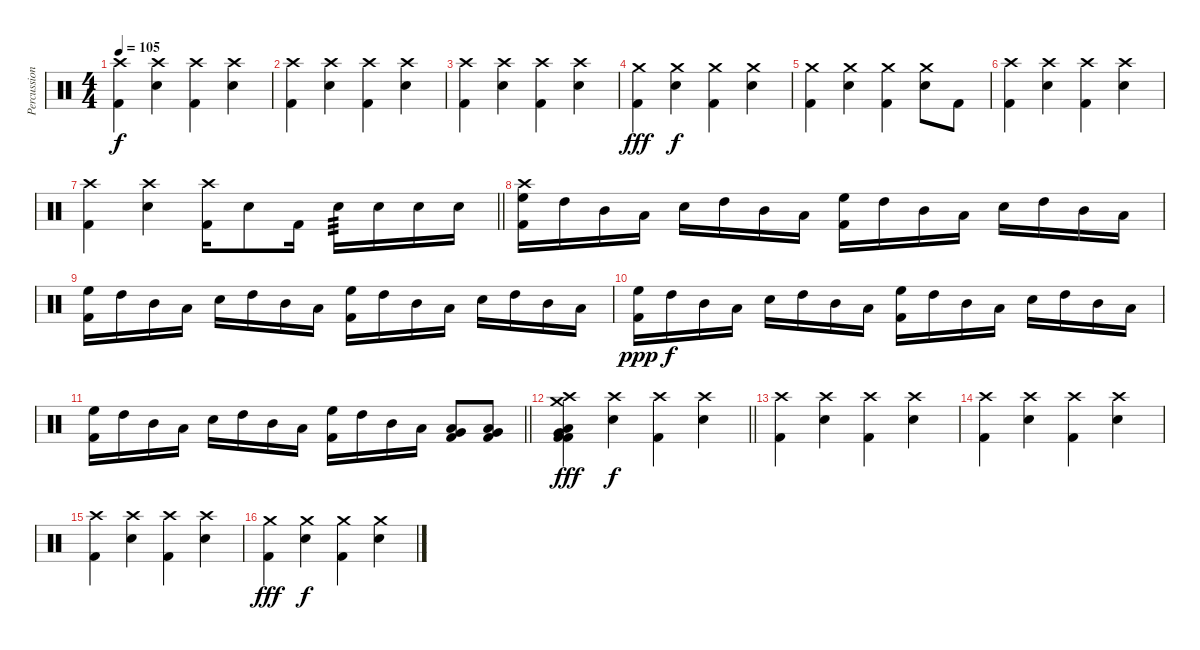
\track ("Percussions" "Percussion") {instrument percussion}
\staff {score}
\articulation defaults
\ts (4 4)
\tempo 105
\clef neutral
\ks c
("Crash high (hit)" "Kick (hit) 2").4{dy f} ("Crash high (hit)" "Electric Snare (hit)").4 ("Crash high (hit)" "Kick (hit) 2").4 ("Crash high (hit)" "Electric Snare (hit)").4 |
("Crash high (hit)" "Kick (hit) 2").4 ("Crash high (hit)" "Electric Snare (hit)").4 ("Crash high (hit)" "Kick (hit) 2").4 ("Crash high (hit)" "Electric Snare (hit)").4 |
("Crash high (hit)" "Kick (hit) 2").4 ("Crash high (hit)" "Electric Snare (hit)").4 ("Crash high (hit)" "Kick (hit) 2").4 ("Crash high (hit)" "Electric Snare (hit)").4 |
("Crash medium (hit)" "Kick (hit) 2").4{dy fff} ("Crash medium (hit)" "Electric Snare (hit)").4{dy f} ("Crash medium (hit)" "Kick (hit) 2").4 ("Crash medium (hit)" "Electric Snare (hit)").4 |
("Crash medium (hit)" "Kick (hit) 2").4 ("Crash medium (hit)" "Electric Snare (hit)").4 ("Crash medium (hit)" "Kick (hit) 2").4 ("Crash medium (hit)" "Electric Snare (hit)").8 "Kick (hit) 2".8 |
("Crash high (hit)" "Kick (hit) 2").4 ("Crash high (hit)" "Electric Snare (hit)").4 ("Crash high (hit)" "Kick (hit) 2").4 ("Crash high (hit)" "Electric Snare (hit)").4 |
\barLineRight lightlight
("Crash high (hit)" "Kick (hit) 2").4 ("Crash high (hit)" "Electric Snare (hit)").4 ("Crash high (hit)" "Kick (hit) 2").16 "Electric Snare (hit)".8 "Kick (hit) 2".16 "Electric Snare (hit)".16{tp 3} "Electric Snare (hit)".16 "Electric Snare (hit)".16 "Electric Snare (hit)".16 |
\section ("" "")
("Crash high (hit)" "High Floor Tom (hit)" "Kick (hit) 2").16 "High Tom (hit)".16 "Mid Tom (hit)".16 "Low Tom (hit)".16 "Electric Snare (hit)".16 "High Tom (hit)".16 "Mid Tom (hit)".16 "Low Tom (hit)".16 ("High Floor Tom (hit)" "Kick (hit) 2").16 "High Tom (hit)".16 "Mid Tom (hit)".16 "Low Tom (hit)".16 "Electric Snare (hit)".16 "High Tom (hit)".16 "Mid Tom (hit)".16 "Low Tom (hit)".16 |
("High Floor Tom (hit)" "Kick (hit) 2").16 "High Tom (hit)".16 "Mid Tom (hit)".16 "Low Tom (hit)".16 "Electric Snare (hit)".16 "High Tom (hit)".16 "Mid Tom (hit)".16 "Low Tom (hit)".16 ("High Floor Tom (hit)" "Kick (hit) 2").16 "High Tom (hit)".16 "Mid Tom (hit)".16 "Low Tom (hit)".16 "Electric Snare (hit)".16 "High Tom (hit)".16 "Mid Tom (hit)".16 "Low Tom (hit)".16 |
("High Floor Tom (hit)" "Kick (hit) 2").16{dy ppp} "High Tom (hit)".16{dy f} "Mid Tom (hit)".16 "Low Tom (hit)".16 "Electric Snare (hit)".16 "High Tom (hit)".16 "Mid Tom (hit)".16 "Low Tom (hit)".16 ("High Floor Tom (hit)" "Kick (hit) 2").16 "High Tom (hit)".16 "Mid Tom (hit)".16 "Low Tom (hit)".16 "Electric Snare (hit)".16 "High Tom (hit)".16 "Mid Tom (hit)".16 "Low Tom (hit)".16 |
\barLineRight lightlight
("High Floor Tom (hit)" "Kick (hit) 2").16 "High Tom (hit)".16 "Mid Tom (hit)".16 "Low Tom (hit)".16 "Electric Snare (hit)".16 "High Tom (hit)".16 "Mid Tom (hit)".16 "Low Tom (hit)".16 ("High Floor Tom (hit)" "Kick (hit) 2").16 "High Tom (hit)".16 "Mid Tom (hit)".16 "Low Tom (hit)".16 ("Very Low Tom (hit)" "Low Floor Tom (hit)" "Kick (hit) 2").8 ("Very Low Tom (hit)" "Low Floor Tom (hit)" "Kick (hit) 2").8 |
\section ("" "")
\barLineRight lightlight
("Crash high (hit)" "Crash medium (hit)" "Very Low Tom (hit)" "Low Floor Tom (hit)" "Kick (hit) 2" "Kick (hit) 2").4{dy fff} ("Crash high (hit)" "Electric Snare (hit)").4{dy f} ("Crash high (hit)" "Kick (hit) 2").4 ("Crash high (hit)" "Electric Snare (hit)").4 |
("Crash high (hit)" "Kick (hit) 2").4 ("Crash high (hit)" "Electric Snare (hit)").4 ("Crash high (hit)" "Kick (hit) 2").4 ("Crash high (hit)" "Electric Snare (hit)").4 |
("Crash high (hit)" "Kick (hit) 2").4 ("Crash high (hit)" "Electric Snare (hit)").4 ("Crash high (hit)" "Kick (hit) 2").4 ("Crash high (hit)" "Electric Snare (hit)").4 |
("Crash high (hit)" "Kick (hit) 2").4 ("Crash high (hit)" "Electric Snare (hit)").4 ("Crash high (hit)" "Kick (hit) 2").4 ("Crash high (hit)" "Electric Snare (hit)").4 |
("Crash medium (hit)" "Kick (hit) 2").4{dy fff} ("Crash medium (hit)" "Electric Snare (hit)").4{dy f} ("Crash medium (hit)" "Kick (hit) 2").4 ("Crash medium (hit)" "Electric Snare (hit)").4
